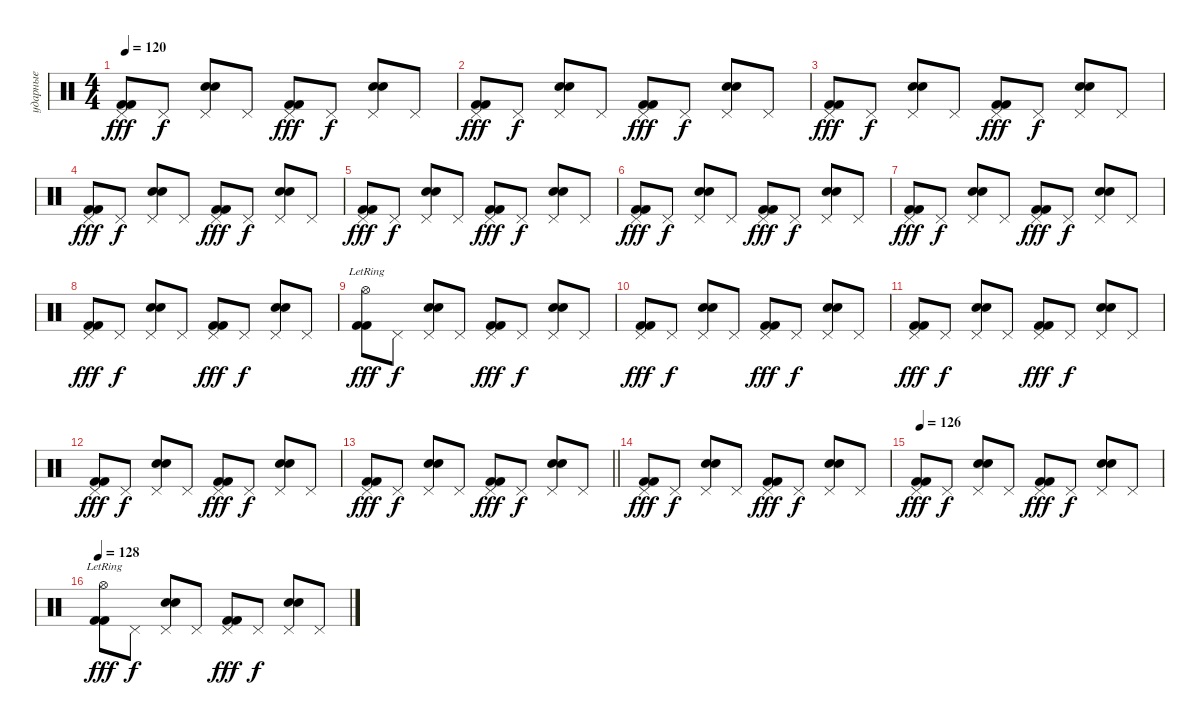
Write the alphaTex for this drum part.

\track ("ударные" "ударные") {instrument percussion}
\staff {score}
\articulation defaults
\ts (4 4)
\tempo 120
\clef neutral
\ks aminor
("Kick (hit) 2" "Kick (hit) 2" "Pedal Hi-Hat (hit)").8{dy fff} "Pedal Hi-Hat (hit)".8{dy f} ("Electric Snare (hit)" "Electric Snare (hit)" "Pedal Hi-Hat (hit)").8 "Pedal Hi-Hat (hit)".8 ("Kick (hit) 2" "Kick (hit) 2" "Pedal Hi-Hat (hit)").8{dy fff} "Pedal Hi-Hat (hit)".8{dy f} ("Electric Snare (hit)" "Electric Snare (hit)" "Pedal Hi-Hat (hit)").8 "Pedal Hi-Hat (hit)".8 |
("Kick (hit) 2" "Kick (hit) 2" "Pedal Hi-Hat (hit)").8{dy fff} "Pedal Hi-Hat (hit)".8{dy f} ("Electric Snare (hit)" "Electric Snare (hit)" "Pedal Hi-Hat (hit)").8 "Pedal Hi-Hat (hit)".8 ("Kick (hit) 2" "Kick (hit) 2" "Pedal Hi-Hat (hit)").8{dy fff} "Pedal Hi-Hat (hit)".8{dy f} ("Electric Snare (hit)" "Electric Snare (hit)" "Pedal Hi-Hat (hit)").8 "Pedal Hi-Hat (hit)".8 |
("Kick (hit) 2" "Kick (hit) 2" "Pedal Hi-Hat (hit)").8{dy fff} "Pedal Hi-Hat (hit)".8{dy f} ("Electric Snare (hit)" "Electric Snare (hit)" "Pedal Hi-Hat (hit)").8 "Pedal Hi-Hat (hit)".8 ("Kick (hit) 2" "Kick (hit) 2" "Pedal Hi-Hat (hit)").8{dy fff} "Pedal Hi-Hat (hit)".8{dy f} ("Electric Snare (hit)" "Electric Snare (hit)" "Pedal Hi-Hat (hit)").8 "Pedal Hi-Hat (hit)".8 |
("Kick (hit) 2" "Kick (hit) 2" "Pedal Hi-Hat (hit)").8{dy fff} "Pedal Hi-Hat (hit)".8{dy f} ("Electric Snare (hit)" "Electric Snare (hit)" "Pedal Hi-Hat (hit)").8 "Pedal Hi-Hat (hit)".8 ("Kick (hit) 2" "Kick (hit) 2" "Pedal Hi-Hat (hit)").8{dy fff} "Pedal Hi-Hat (hit)".8{dy f} ("Electric Snare (hit)" "Electric Snare (hit)" "Pedal Hi-Hat (hit)").8 "Pedal Hi-Hat (hit)".8 |
("Kick (hit) 2" "Kick (hit) 2" "Pedal Hi-Hat (hit)").8{dy fff} "Pedal Hi-Hat (hit)".8{dy f} ("Electric Snare (hit)" "Electric Snare (hit)" "Pedal Hi-Hat (hit)").8 "Pedal Hi-Hat (hit)".8 ("Kick (hit) 2" "Kick (hit) 2" "Pedal Hi-Hat (hit)").8{dy fff} "Pedal Hi-Hat (hit)".8{dy f} ("Electric Snare (hit)" "Electric Snare (hit)" "Pedal Hi-Hat (hit)").8 "Pedal Hi-Hat (hit)".8 |
("Kick (hit) 2" "Kick (hit) 2" "Pedal Hi-Hat (hit)").8{dy fff} "Pedal Hi-Hat (hit)".8{dy f} ("Electric Snare (hit)" "Electric Snare (hit)" "Pedal Hi-Hat (hit)").8 "Pedal Hi-Hat (hit)".8 ("Kick (hit) 2" "Kick (hit) 2" "Pedal Hi-Hat (hit)").8{dy fff} "Pedal Hi-Hat (hit)".8{dy f} ("Electric Snare (hit)" "Electric Snare (hit)" "Pedal Hi-Hat (hit)").8 "Pedal Hi-Hat (hit)".8 |
("Kick (hit) 2" "Kick (hit) 2" "Pedal Hi-Hat (hit)").8{dy fff} "Pedal Hi-Hat (hit)".8{dy f} ("Electric Snare (hit)" "Electric Snare (hit)" "Pedal Hi-Hat (hit)").8 "Pedal Hi-Hat (hit)".8 ("Kick (hit) 2" "Kick (hit) 2" "Pedal Hi-Hat (hit)").8{dy fff} "Pedal Hi-Hat (hit)".8{dy f} ("Electric Snare (hit)" "Electric Snare (hit)" "Pedal Hi-Hat (hit)").8 "Pedal Hi-Hat (hit)".8 |
("Kick (hit) 2" "Kick (hit) 2" "Pedal Hi-Hat (hit)").8{dy fff} "Pedal Hi-Hat (hit)".8{dy f} ("Electric Snare (hit)" "Electric Snare (hit)" "Pedal Hi-Hat (hit)").8 "Pedal Hi-Hat (hit)".8 ("Kick (hit) 2" "Kick (hit) 2" "Pedal Hi-Hat (hit)").8{dy fff} "Pedal Hi-Hat (hit)".8{dy f} ("Electric Snare (hit)" "Electric Snare (hit)" "Pedal Hi-Hat (hit)").8 "Pedal Hi-Hat (hit)".8 |
("Kick (hit) 2" "Kick (hit) 2" "Hi-Hat (open)"{lr}).8{dy fff} "Pedal Hi-Hat (hit)".8{dy f} ("Electric Snare (hit)" "Electric Snare (hit)" "Pedal Hi-Hat (hit)").8 "Pedal Hi-Hat (hit)".8 ("Kick (hit) 2" "Kick (hit) 2" "Pedal Hi-Hat (hit)").8{dy fff} "Pedal Hi-Hat (hit)".8{dy f} ("Electric Snare (hit)" "Electric Snare (hit)" "Pedal Hi-Hat (hit)").8 "Pedal Hi-Hat (hit)".8 |
("Kick (hit) 2" "Kick (hit) 2" "Pedal Hi-Hat (hit)").8{dy fff} "Pedal Hi-Hat (hit)".8{dy f} ("Electric Snare (hit)" "Electric Snare (hit)" "Pedal Hi-Hat (hit)").8 "Pedal Hi-Hat (hit)".8 ("Kick (hit) 2" "Kick (hit) 2" "Pedal Hi-Hat (hit)").8{dy fff} "Pedal Hi-Hat (hit)".8{dy f} ("Electric Snare (hit)" "Electric Snare (hit)" "Pedal Hi-Hat (hit)").8 "Pedal Hi-Hat (hit)".8 |
("Kick (hit) 2" "Kick (hit) 2" "Pedal Hi-Hat (hit)").8{dy fff} "Pedal Hi-Hat (hit)".8{dy f} ("Electric Snare (hit)" "Electric Snare (hit)" "Pedal Hi-Hat (hit)").8 "Pedal Hi-Hat (hit)".8 ("Kick (hit) 2" "Kick (hit) 2" "Pedal Hi-Hat (hit)").8{dy fff} "Pedal Hi-Hat (hit)".8{dy f} ("Electric Snare (hit)" "Electric Snare (hit)" "Pedal Hi-Hat (hit)").8 "Pedal Hi-Hat (hit)".8 |
("Kick (hit) 2" "Kick (hit) 2" "Pedal Hi-Hat (hit)").8{dy fff} "Pedal Hi-Hat (hit)".8{dy f} ("Electric Snare (hit)" "Electric Snare (hit)" "Pedal Hi-Hat (hit)").8 "Pedal Hi-Hat (hit)".8 ("Kick (hit) 2" "Kick (hit) 2" "Pedal Hi-Hat (hit)").8{dy fff} "Pedal Hi-Hat (hit)".8{dy f} ("Electric Snare (hit)" "Electric Snare (hit)" "Pedal Hi-Hat (hit)").8 "Pedal Hi-Hat (hit)".8 |
\barLineRight lightlight
("Kick (hit) 2" "Kick (hit) 2" "Pedal Hi-Hat (hit)").8{dy fff} "Pedal Hi-Hat (hit)".8{dy f} ("Electric Snare (hit)" "Electric Snare (hit)" "Pedal Hi-Hat (hit)").8 "Pedal Hi-Hat (hit)".8 ("Kick (hit) 2" "Kick (hit) 2" "Pedal Hi-Hat (hit)").8{dy fff} "Pedal Hi-Hat (hit)".8{dy f} ("Electric Snare (hit)" "Electric Snare (hit)" "Pedal Hi-Hat (hit)").8 "Pedal Hi-Hat (hit)".8 |
\section ("" "")
("Kick (hit) 2" "Kick (hit) 2" "Pedal Hi-Hat (hit)").8{dy fff} "Pedal Hi-Hat (hit)".8{dy f} ("Electric Snare (hit)" "Electric Snare (hit)" "Pedal Hi-Hat (hit)").8 "Pedal Hi-Hat (hit)".8 ("Kick (hit) 2" "Kick (hit) 2" "Pedal Hi-Hat (hit)").8{dy fff} "Pedal Hi-Hat (hit)".8{dy f} ("Electric Snare (hit)" "Electric Snare (hit)" "Pedal Hi-Hat (hit)").8 "Pedal Hi-Hat (hit)".8 |
\tempo 126
("Kick (hit) 2" "Kick (hit) 2" "Pedal Hi-Hat (hit)").8{dy fff} "Pedal Hi-Hat (hit)".8{dy f} ("Electric Snare (hit)" "Electric Snare (hit)" "Pedal Hi-Hat (hit)").8 "Pedal Hi-Hat (hit)".8 ("Kick (hit) 2" "Kick (hit) 2" "Pedal Hi-Hat (hit)").8{dy fff} "Pedal Hi-Hat (hit)".8{dy f} ("Electric Snare (hit)" "Electric Snare (hit)" "Pedal Hi-Hat (hit)").8 "Pedal Hi-Hat (hit)".8 |
\tempo 128
("Kick (hit) 2" "Kick (hit) 2" "Hi-Hat (open)"{lr}).8{dy fff} "Pedal Hi-Hat (hit)".8{dy f} ("Electric Snare (hit)" "Electric Snare (hit)" "Pedal Hi-Hat (hit)").8 "Pedal Hi-Hat (hit)".8 ("Kick (hit) 2" "Kick (hit) 2" "Pedal Hi-Hat (hit)").8{dy fff} "Pedal Hi-Hat (hit)".8{dy f} ("Electric Snare (hit)" "Electric Snare (hit)" "Pedal Hi-Hat (hit)").8 "Pedal Hi-Hat (hit)".8
